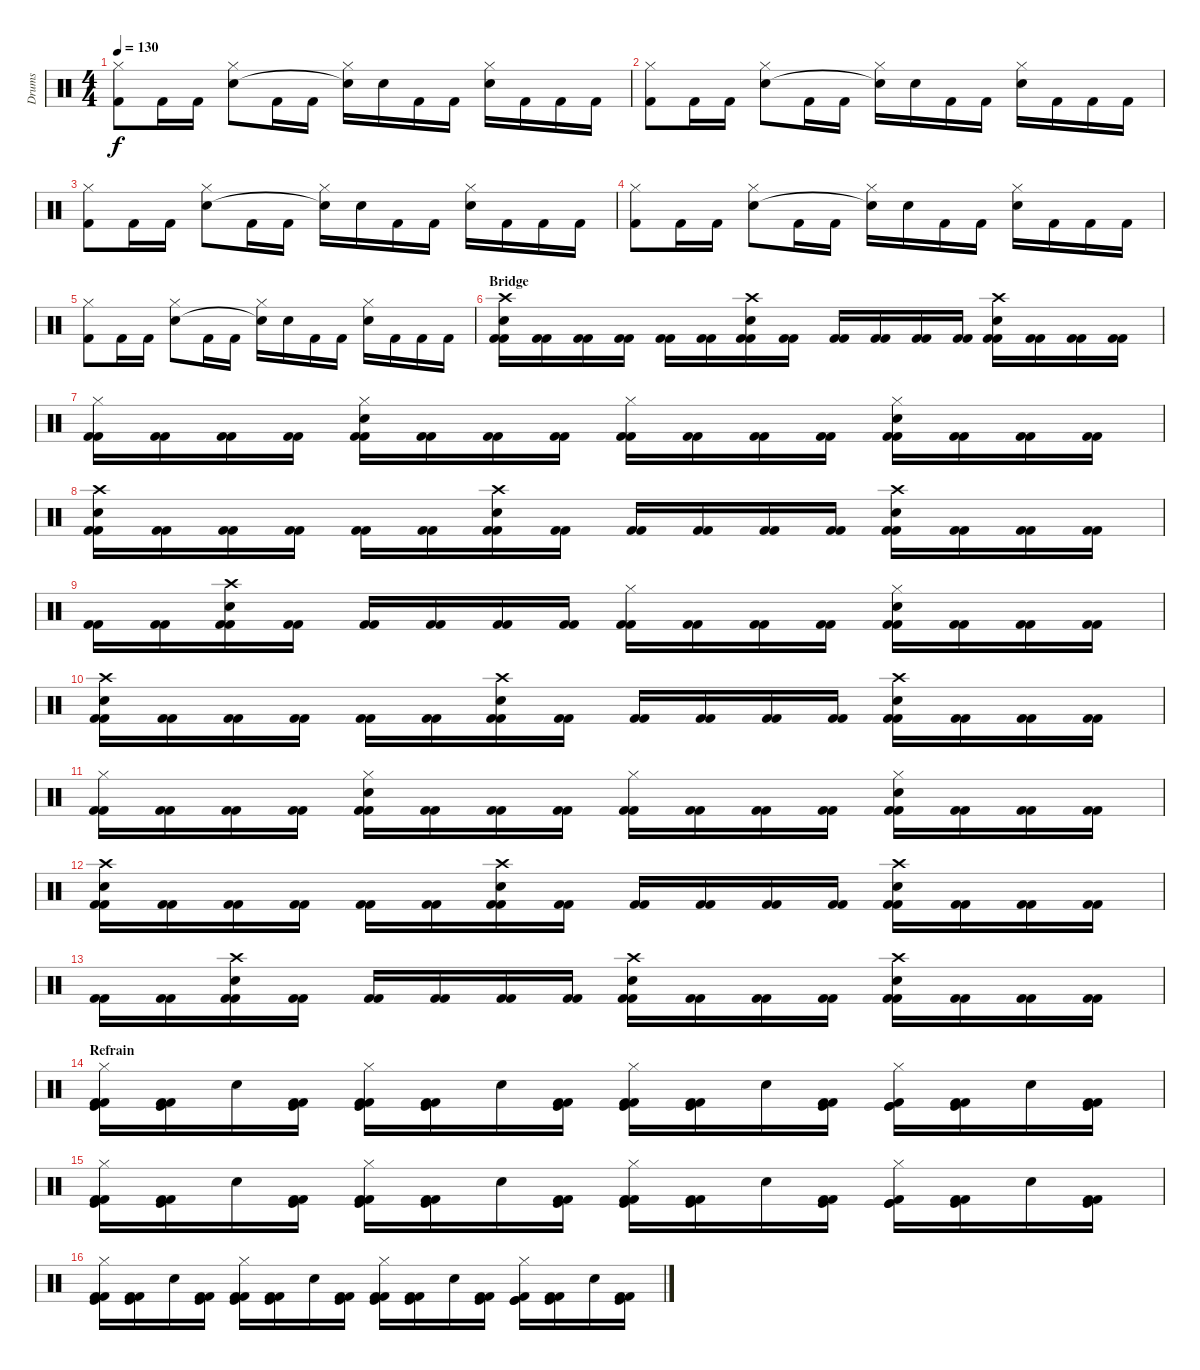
\track ("Drums" "Drums") {instrument percussion}
\staff {score}
\articulation defaults
\ts (4 4)
\tempo 130
\clef neutral
\ks c
("Hi-Hat (closed)" "Kick (hit) 2").8{dy f} "Kick (hit) 2".16 "Kick (hit) 2".16 ("Hi-Hat (closed)" "Electric Snare (hit)").8 "Kick (hit) 2".16 "Kick (hit) 2".16 ("Hi-Hat (closed)" "Snare (hit)"{t}).16 "Electric Snare (hit)".16 "Kick (hit) 2".16 "Kick (hit) 2".16 ("Hi-Hat (closed)" "Electric Snare (hit)").16 "Kick (hit) 2".16 "Kick (hit) 2".16 "Kick (hit) 2".16 |
("Hi-Hat (closed)" "Kick (hit) 2").8 "Kick (hit) 2".16 "Kick (hit) 2".16 ("Hi-Hat (closed)" "Electric Snare (hit)").8 "Kick (hit) 2".16 "Kick (hit) 2".16 ("Hi-Hat (closed)" "Snare (hit)"{t}).16 "Electric Snare (hit)".16 "Kick (hit) 2".16 "Kick (hit) 2".16 ("Hi-Hat (closed)" "Electric Snare (hit)").16 "Kick (hit) 2".16 "Kick (hit) 2".16 "Kick (hit) 2".16 |
("Hi-Hat (closed)" "Kick (hit) 2").8 "Kick (hit) 2".16 "Kick (hit) 2".16 ("Hi-Hat (closed)" "Electric Snare (hit)").8 "Kick (hit) 2".16 "Kick (hit) 2".16 ("Hi-Hat (closed)" "Snare (hit)"{t}).16 "Electric Snare (hit)".16 "Kick (hit) 2".16 "Kick (hit) 2".16 ("Hi-Hat (closed)" "Electric Snare (hit)").16 "Kick (hit) 2".16 "Kick (hit) 2".16 "Kick (hit) 2".16 |
("Hi-Hat (closed)" "Kick (hit) 2").8 "Kick (hit) 2".16 "Kick (hit) 2".16 ("Hi-Hat (closed)" "Electric Snare (hit)").8 "Kick (hit) 2".16 "Kick (hit) 2".16 ("Hi-Hat (closed)" "Snare (hit)"{t}).16 "Electric Snare (hit)".16 "Kick (hit) 2".16 "Kick (hit) 2".16 ("Hi-Hat (closed)" "Electric Snare (hit)").16 "Kick (hit) 2".16 "Kick (hit) 2".16 "Kick (hit) 2".16 |
("Hi-Hat (closed)" "Kick (hit) 2").8 "Kick (hit) 2".16 "Kick (hit) 2".16 ("Hi-Hat (closed)" "Electric Snare (hit)").8 "Kick (hit) 2".16 "Kick (hit) 2".16 ("Hi-Hat (closed)" "Snare (hit)"{t}).16 "Electric Snare (hit)".16 "Kick (hit) 2".16 "Kick (hit) 2".16 ("Hi-Hat (closed)" "Electric Snare (hit)").16 "Kick (hit) 2".16 "Kick (hit) 2".16 "Kick (hit) 2".16 |
\section ("" "Bridge")
("Crash high (hit)" "Electric Snare (hit)" "Kick (hit) 2" "Kick (hit) 2").16 ("Kick (hit) 2" "Kick (hit) 2").16 ("Kick (hit) 2" "Kick (hit) 2").16 ("Kick (hit) 2" "Kick (hit) 2").16 ("Kick (hit) 2" "Kick (hit) 2").16 ("Kick (hit) 2" "Kick (hit) 2").16 ("Crash high (hit)" "Electric Snare (hit)" "Kick (hit) 2" "Kick (hit) 2").16 ("Kick (hit) 2" "Kick (hit) 2").16 ("Kick (hit) 2" "Kick (hit) 2").16 ("Kick (hit) 2" "Kick (hit) 2").16 ("Kick (hit) 2" "Kick (hit) 2").16 ("Kick (hit) 2" "Kick (hit) 2").16 ("Crash high (hit)" "Electric Snare (hit)" "Kick (hit) 2" "Kick (hit) 2").16 ("Kick (hit) 2" "Kick (hit) 2").16 ("Kick (hit) 2" "Kick (hit) 2").16 ("Kick (hit) 2" "Kick (hit) 2").16 |
("Hi-Hat (closed)" "Kick (hit) 2" "Kick (hit) 2").16 ("Kick (hit) 2" "Kick (hit) 2").16 ("Kick (hit) 2" "Kick (hit) 2").16 ("Kick (hit) 2" "Kick (hit) 2").16 ("Hi-Hat (closed)" "Electric Snare (hit)" "Kick (hit) 2" "Kick (hit) 2").16 ("Kick (hit) 2" "Kick (hit) 2").16 ("Kick (hit) 2" "Kick (hit) 2").16 ("Kick (hit) 2" "Kick (hit) 2").16 ("Hi-Hat (closed)" "Kick (hit) 2" "Kick (hit) 2").16 ("Kick (hit) 2" "Kick (hit) 2").16 ("Kick (hit) 2" "Kick (hit) 2").16 ("Kick (hit) 2" "Kick (hit) 2").16 ("Hi-Hat (closed)" "Electric Snare (hit)" "Kick (hit) 2" "Kick (hit) 2").16 ("Kick (hit) 2" "Kick (hit) 2").16 ("Kick (hit) 2" "Kick (hit) 2").16 ("Kick (hit) 2" "Kick (hit) 2").16 |
("Crash high (hit)" "Electric Snare (hit)" "Kick (hit) 2" "Kick (hit) 2").16 ("Kick (hit) 2" "Kick (hit) 2").16 ("Kick (hit) 2" "Kick (hit) 2").16 ("Kick (hit) 2" "Kick (hit) 2").16 ("Kick (hit) 2" "Kick (hit) 2").16 ("Kick (hit) 2" "Kick (hit) 2").16 ("Crash high (hit)" "Electric Snare (hit)" "Kick (hit) 2" "Kick (hit) 2").16 ("Kick (hit) 2" "Kick (hit) 2").16 ("Kick (hit) 2" "Kick (hit) 2").16 ("Kick (hit) 2" "Kick (hit) 2").16 ("Kick (hit) 2" "Kick (hit) 2").16 ("Kick (hit) 2" "Kick (hit) 2").16 ("Crash high (hit)" "Electric Snare (hit)" "Kick (hit) 2" "Kick (hit) 2").16 ("Kick (hit) 2" "Kick (hit) 2").16 ("Kick (hit) 2" "Kick (hit) 2").16 ("Kick (hit) 2" "Kick (hit) 2").16 |
("Kick (hit) 2" "Kick (hit) 2").16 ("Kick (hit) 2" "Kick (hit) 2").16 ("Crash high (hit)" "Electric Snare (hit)" "Kick (hit) 2" "Kick (hit) 2").16 ("Kick (hit) 2" "Kick (hit) 2").16 ("Kick (hit) 2" "Kick (hit) 2").16 ("Kick (hit) 2" "Kick (hit) 2").16 ("Kick (hit) 2" "Kick (hit) 2").16 ("Kick (hit) 2" "Kick (hit) 2").16 ("Hi-Hat (closed)" "Kick (hit) 2" "Kick (hit) 2").16 ("Kick (hit) 2" "Kick (hit) 2").16 ("Kick (hit) 2" "Kick (hit) 2").16 ("Kick (hit) 2" "Kick (hit) 2").16 ("Hi-Hat (closed)" "Electric Snare (hit)" "Kick (hit) 2" "Kick (hit) 2").16 ("Kick (hit) 2" "Kick (hit) 2").16 ("Kick (hit) 2" "Kick (hit) 2").16 ("Kick (hit) 2" "Kick (hit) 2").16 |
("Crash high (hit)" "Electric Snare (hit)" "Kick (hit) 2" "Kick (hit) 2").16 ("Kick (hit) 2" "Kick (hit) 2").16 ("Kick (hit) 2" "Kick (hit) 2").16 ("Kick (hit) 2" "Kick (hit) 2").16 ("Kick (hit) 2" "Kick (hit) 2").16 ("Kick (hit) 2" "Kick (hit) 2").16 ("Crash high (hit)" "Electric Snare (hit)" "Kick (hit) 2" "Kick (hit) 2").16 ("Kick (hit) 2" "Kick (hit) 2").16 ("Kick (hit) 2" "Kick (hit) 2").16 ("Kick (hit) 2" "Kick (hit) 2").16 ("Kick (hit) 2" "Kick (hit) 2").16 ("Kick (hit) 2" "Kick (hit) 2").16 ("Crash high (hit)" "Electric Snare (hit)" "Kick (hit) 2" "Kick (hit) 2").16 ("Kick (hit) 2" "Kick (hit) 2").16 ("Kick (hit) 2" "Kick (hit) 2").16 ("Kick (hit) 2" "Kick (hit) 2").16 |
("Hi-Hat (closed)" "Kick (hit) 2" "Kick (hit) 2").16 ("Kick (hit) 2" "Kick (hit) 2").16 ("Kick (hit) 2" "Kick (hit) 2").16 ("Kick (hit) 2" "Kick (hit) 2").16 ("Hi-Hat (closed)" "Electric Snare (hit)" "Kick (hit) 2" "Kick (hit) 2").16 ("Kick (hit) 2" "Kick (hit) 2").16 ("Kick (hit) 2" "Kick (hit) 2").16 ("Kick (hit) 2" "Kick (hit) 2").16 ("Hi-Hat (closed)" "Kick (hit) 2" "Kick (hit) 2").16 ("Kick (hit) 2" "Kick (hit) 2").16 ("Kick (hit) 2" "Kick (hit) 2").16 ("Kick (hit) 2" "Kick (hit) 2").16 ("Hi-Hat (closed)" "Electric Snare (hit)" "Kick (hit) 2" "Kick (hit) 2").16 ("Kick (hit) 2" "Kick (hit) 2").16 ("Kick (hit) 2" "Kick (hit) 2").16 ("Kick (hit) 2" "Kick (hit) 2").16 |
("Crash high (hit)" "Electric Snare (hit)" "Kick (hit) 2" "Kick (hit) 2").16 ("Kick (hit) 2" "Kick (hit) 2").16 ("Kick (hit) 2" "Kick (hit) 2").16 ("Kick (hit) 2" "Kick (hit) 2").16 ("Kick (hit) 2" "Kick (hit) 2").16 ("Kick (hit) 2" "Kick (hit) 2").16 ("Crash high (hit)" "Electric Snare (hit)" "Kick (hit) 2" "Kick (hit) 2").16 ("Kick (hit) 2" "Kick (hit) 2").16 ("Kick (hit) 2" "Kick (hit) 2").16 ("Kick (hit) 2" "Kick (hit) 2").16 ("Kick (hit) 2" "Kick (hit) 2").16 ("Kick (hit) 2" "Kick (hit) 2").16 ("Crash high (hit)" "Electric Snare (hit)" "Kick (hit) 2" "Kick (hit) 2").16 ("Kick (hit) 2" "Kick (hit) 2").16 ("Kick (hit) 2" "Kick (hit) 2").16 ("Kick (hit) 2" "Kick (hit) 2").16 |
("Kick (hit) 2" "Kick (hit) 2").16 ("Kick (hit) 2" "Kick (hit) 2").16 ("Crash high (hit)" "Electric Snare (hit)" "Kick (hit) 2" "Kick (hit) 2").16 ("Kick (hit) 2" "Kick (hit) 2").16 ("Kick (hit) 2" "Kick (hit) 2").16 ("Kick (hit) 2" "Kick (hit) 2").16 ("Kick (hit) 2" "Kick (hit) 2").16 ("Kick (hit) 2" "Kick (hit) 2").16 ("Crash high (hit)" "Electric Snare (hit)" "Kick (hit) 2" "Kick (hit) 2").16 ("Kick (hit) 2" "Kick (hit) 2").16 ("Kick (hit) 2" "Kick (hit) 2").16 ("Kick (hit) 2" "Kick (hit) 2").16 ("Crash high (hit)" "Electric Snare (hit)" "Kick (hit) 2" "Kick (hit) 2").16 ("Kick (hit) 2" "Kick (hit) 2").16 ("Kick (hit) 2" "Kick (hit) 2").16 ("Kick (hit) 2" "Kick (hit) 2").16 |
\section ("" "Refrain")
("Hi-Hat (closed)" "Kick (hit)" "Kick (hit) 2" "Kick (hit) 2").16 ("Kick (hit)" "Kick (hit) 2" "Kick (hit) 2").16 "Electric Snare (hit)".16 ("Kick (hit)" "Kick (hit) 2" "Kick (hit) 2").16 ("Hi-Hat (closed)" "Kick (hit)" "Kick (hit) 2" "Kick (hit) 2").16 ("Kick (hit)" "Kick (hit) 2" "Kick (hit) 2").16 "Electric Snare (hit)".16 ("Kick (hit)" "Kick (hit) 2" "Kick (hit) 2").16 ("Hi-Hat (closed)" "Kick (hit)" "Kick (hit) 2" "Kick (hit) 2").16 ("Kick (hit)" "Kick (hit) 2" "Kick (hit) 2").16 "Electric Snare (hit)".16 ("Kick (hit)" "Kick (hit) 2" "Kick (hit) 2").16 ("Hi-Hat (closed)" "Kick (hit)" "Kick (hit)" "Kick (hit) 2").16 ("Kick (hit)" "Kick (hit) 2" "Kick (hit) 2").16 "Electric Snare (hit)".16 ("Kick (hit)" "Kick (hit) 2" "Kick (hit) 2").16 |
("Hi-Hat (closed)" "Kick (hit)" "Kick (hit) 2" "Kick (hit) 2").16 ("Kick (hit)" "Kick (hit) 2" "Kick (hit) 2").16 "Electric Snare (hit)".16 ("Kick (hit)" "Kick (hit) 2" "Kick (hit) 2").16 ("Hi-Hat (closed)" "Kick (hit)" "Kick (hit) 2" "Kick (hit) 2").16 ("Kick (hit)" "Kick (hit) 2" "Kick (hit) 2").16 "Electric Snare (hit)".16 ("Kick (hit)" "Kick (hit) 2" "Kick (hit) 2").16 ("Hi-Hat (closed)" "Kick (hit)" "Kick (hit) 2" "Kick (hit) 2").16 ("Kick (hit)" "Kick (hit) 2" "Kick (hit) 2").16 "Electric Snare (hit)".16 ("Kick (hit)" "Kick (hit) 2" "Kick (hit) 2").16 ("Hi-Hat (closed)" "Kick (hit)" "Kick (hit)" "Kick (hit) 2").16 ("Kick (hit)" "Kick (hit) 2" "Kick (hit) 2").16 "Electric Snare (hit)".16 ("Kick (hit)" "Kick (hit) 2" "Kick (hit) 2").16 |
("Hi-Hat (closed)" "Kick (hit)" "Kick (hit) 2" "Kick (hit) 2").16 ("Kick (hit)" "Kick (hit) 2" "Kick (hit) 2").16 "Electric Snare (hit)".16 ("Kick (hit)" "Kick (hit) 2" "Kick (hit) 2").16 ("Hi-Hat (closed)" "Kick (hit)" "Kick (hit) 2" "Kick (hit) 2").16 ("Kick (hit)" "Kick (hit) 2" "Kick (hit) 2").16 "Electric Snare (hit)".16 ("Kick (hit)" "Kick (hit) 2" "Kick (hit) 2").16 ("Hi-Hat (closed)" "Kick (hit)" "Kick (hit) 2" "Kick (hit) 2").16 ("Kick (hit)" "Kick (hit) 2" "Kick (hit) 2").16 "Electric Snare (hit)".16 ("Kick (hit)" "Kick (hit) 2" "Kick (hit) 2").16 ("Hi-Hat (closed)" "Kick (hit)" "Kick (hit)" "Kick (hit) 2").16 ("Kick (hit)" "Kick (hit) 2" "Kick (hit) 2").16 "Electric Snare (hit)".16 ("Kick (hit)" "Kick (hit) 2" "Kick (hit) 2").16
